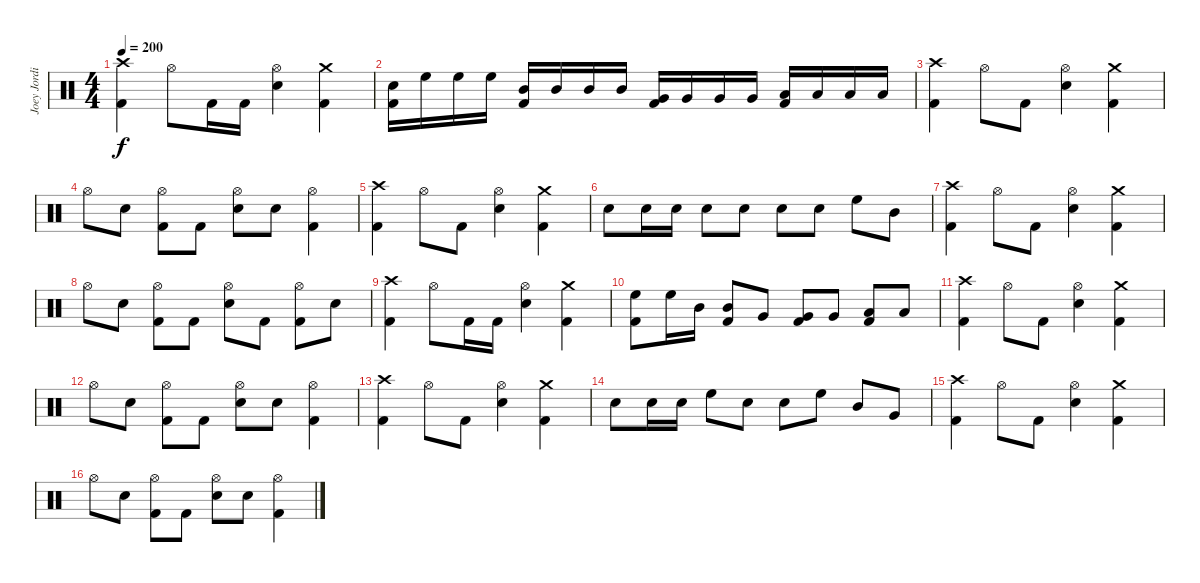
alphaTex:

\track ("Joey Jordison" "Joey Jordi") {instrument percussion}
\staff {score}
\articulation defaults
\ts (4 4)
\tempo 200
\clef neutral
\ks c
("Crash high (hit)" "Kick (hit) 2").4{dy f} "Hi-Hat (open)".8 "Kick (hit) 2".16 "Kick (hit) 2".16 ("Hi-Hat (open)" "Electric Snare (hit)").4 ("Crash medium (hit)" "Kick (hit) 2").4 |
("Electric Snare (hit)" "Kick (hit) 2").16 "High Floor Tom (hit)".16 "High Floor Tom (hit)".16 "High Floor Tom (hit)".16 ("Mid Tom (hit)" "Kick (hit) 2").16 "Mid Tom (hit)".16 "Mid Tom (hit)".16 "Mid Tom (hit)".16 ("Very Low Tom (hit)" "Kick (hit) 2").16 "Very Low Tom (hit)".16 "Very Low Tom (hit)".16 "Very Low Tom (hit)".16 ("Low Floor Tom (hit)" "Kick (hit) 2").16 "Low Floor Tom (hit)".16 "Low Floor Tom (hit)".16 "Low Floor Tom (hit)".16 |
("Crash high (hit)" "Kick (hit) 2").4 "Hi-Hat (open)".8 "Kick (hit) 2".8 ("Hi-Hat (open)" "Electric Snare (hit)").4 ("Crash medium (hit)" "Kick (hit) 2").4 |
"Hi-Hat (open)".8 "Electric Snare (hit)".8 ("Hi-Hat (open)" "Kick (hit) 2").8 "Kick (hit) 2".8 ("Hi-Hat (open)" "Electric Snare (hit)").8 "Electric Snare (hit)".8 ("Hi-Hat (open)" "Kick (hit) 2").4 |
("Crash high (hit)" "Kick (hit) 2").4 "Hi-Hat (open)".8 "Kick (hit) 2".8 ("Hi-Hat (open)" "Electric Snare (hit)").4 ("Crash medium (hit)" "Kick (hit) 2").4 |
"Electric Snare (hit)".8 "Electric Snare (hit)".16 "Electric Snare (hit)".16 "Electric Snare (hit)".8 "Electric Snare (hit)".8 "Electric Snare (hit)".8 "Electric Snare (hit)".8 "High Floor Tom (hit)".8 "Mid Tom (hit)".8 |
("Crash high (hit)" "Kick (hit) 2").4 "Hi-Hat (open)".8 "Kick (hit) 2".8 ("Hi-Hat (open)" "Electric Snare (hit)").4 ("Crash medium (hit)" "Kick (hit) 2").4 |
"Hi-Hat (open)".8 "Electric Snare (hit)".8 ("Hi-Hat (open)" "Kick (hit) 2").8 "Kick (hit) 2".8 ("Hi-Hat (open)" "Electric Snare (hit)").8 "Kick (hit) 2".8 ("Hi-Hat (open)" "Kick (hit) 2").8 "Electric Snare (hit)".8 |
("Crash high (hit)" "Kick (hit) 2").4 "Hi-Hat (open)".8 "Kick (hit) 2".16 "Kick (hit) 2".16 ("Hi-Hat (open)" "Electric Snare (hit)").4 ("Crash medium (hit)" "Kick (hit) 2").4 |
("High Floor Tom (hit)" "Kick (hit) 2").8 "High Floor Tom (hit)".16 "Mid Tom (hit)".16 ("Mid Tom (hit)" "Kick (hit) 2").8 "Very Low Tom (hit)".8 ("Very Low Tom (hit)" "Kick (hit) 2").8 "Very Low Tom (hit)".8 ("Low Floor Tom (hit)" "Kick (hit) 2").8 "Low Floor Tom (hit)".8 |
("Crash high (hit)" "Kick (hit) 2").4 "Hi-Hat (open)".8 "Kick (hit) 2".8 ("Hi-Hat (open)" "Electric Snare (hit)").4 ("Crash medium (hit)" "Kick (hit) 2").4 |
"Hi-Hat (open)".8 "Electric Snare (hit)".8 ("Hi-Hat (open)" "Kick (hit) 2").8 "Kick (hit) 2".8 ("Hi-Hat (open)" "Electric Snare (hit)").8 "Electric Snare (hit)".8 ("Hi-Hat (open)" "Kick (hit) 2").4 |
("Crash high (hit)" "Kick (hit) 2").4 "Hi-Hat (open)".8 "Kick (hit) 2".8 ("Hi-Hat (open)" "Electric Snare (hit)").4 ("Crash medium (hit)" "Kick (hit) 2").4 |
"Electric Snare (hit)".8 "Electric Snare (hit)".16 "Electric Snare (hit)".16 "High Floor Tom (hit)".8 "Electric Snare (hit)".8 "Electric Snare (hit)".8 "High Floor Tom (hit)".8 "Mid Tom (hit)".8 "Very Low Tom (hit)".8 |
("Crash high (hit)" "Kick (hit) 2").4 "Hi-Hat (open)".8 "Kick (hit) 2".8 ("Hi-Hat (open)" "Electric Snare (hit)").4 ("Crash medium (hit)" "Kick (hit) 2").4 |
"Hi-Hat (open)".8 "Electric Snare (hit)".8 ("Hi-Hat (open)" "Kick (hit) 2").8 "Kick (hit) 2".8 ("Hi-Hat (open)" "Electric Snare (hit)").8 "Electric Snare (hit)".8 ("Hi-Hat (open)" "Kick (hit) 2").4
